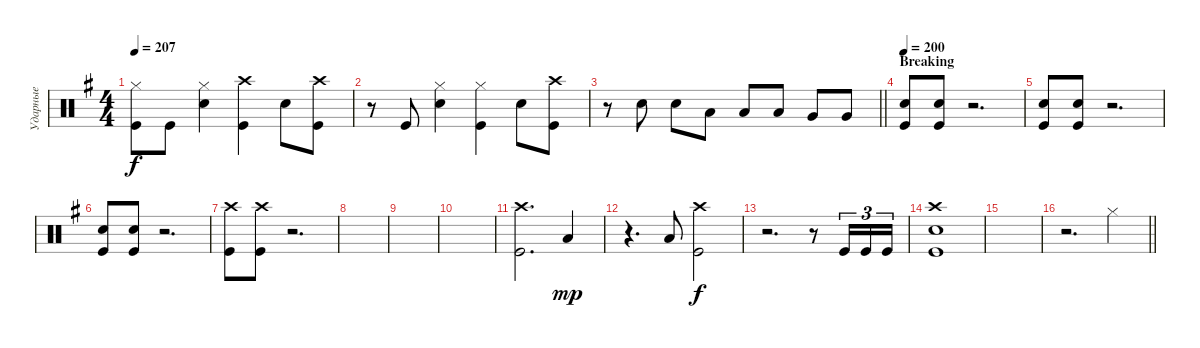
\track ("Ударные" "Ударные") {instrument percussion}
\staff {score}
\articulation defaults
\ts (4 4)
\tempo 207
\clef neutral
\ks eminor
("Kick (hit)" "Hi-Hat (closed)").8{dy f} "Kick (hit)".8 ("Snare (hit) 2" "Hi-Hat (closed)").4 ("Kick (hit)" "Crash high (hit)").4 "Snare (hit) 2".8 ("Crash high (hit)" "Kick (hit)").8 |
r.8 "Kick (hit)".8 ("Snare (hit) 2" "Hi-Hat (closed)").4 ("Kick (hit)" "Hi-Hat (closed)").4 "Snare (hit) 2".8 ("Kick (hit)" "Crash high (hit)").8 |
\barLineRight lightlight
r.8 "Snare (hit) 2".8 "Snare (hit) 2".8 "Low Tom (hit)".8 "Low Tom (hit)".8 "Low Tom (hit)".8 "Very Low Tom (hit)".8 "Very Low Tom (hit)".8 |
\section ("" "Breaking")
\tempo 200
("Snare (hit) 2" "Kick (hit)").8 ("Snare (hit) 2" "Kick (hit)").8 r.2{d} |
("Kick (hit)" "Snare (hit) 2").8 ("Kick (hit)" "Snare (hit) 2").8 r.2{d} |
("Kick (hit)" "Snare (hit) 2").8 ("Kick (hit)" "Snare (hit) 2").8 r.2{d} |
("Kick (hit)" "Crash high (hit)").8 ("Kick (hit)" "Crash high (hit)").8 r.2{d} |
|
|
|
("Kick (hit)" "Crash high (hit)").2{d} "Low Floor Tom (hit)".4{dy mp} |
r.4{d} "Low Floor Tom (hit)".8 ("Kick (hit)" "Crash high (hit)").2{dy f} |
r.2{d} r.8 "Kick (hit)".16{tu (3 2)} "Kick (hit)".16{tu (3 2)} "Kick (hit)".16{tu (3 2)} |
("Kick (hit)" "Crash high (hit)" "Snare (hit) 2").1 |
|
\barLineRight lightlight
r.2{d} "Hi-Hat (closed)".4
